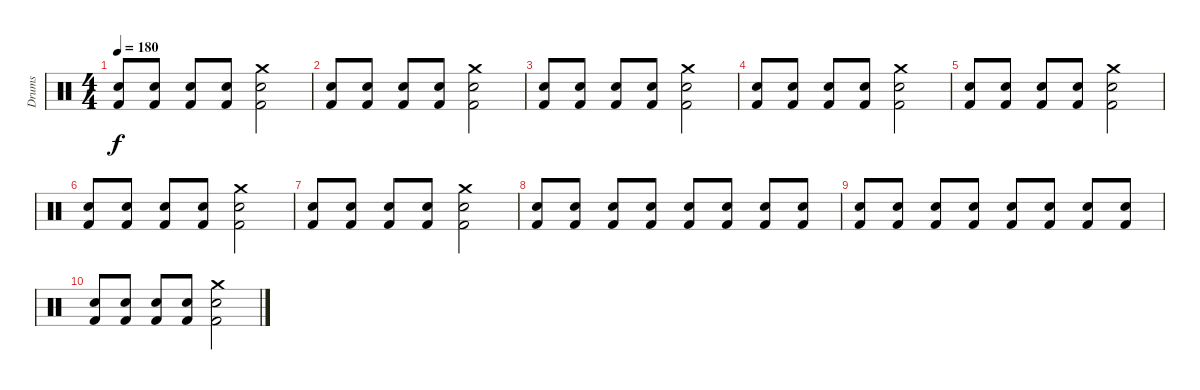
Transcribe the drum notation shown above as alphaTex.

\track ("Drums" "Drums") {instrument percussion}
\staff {score}
\articulation defaults
\ts (4 4)
\tempo 180
\clef neutral
\ks c
("Snare (hit) 2" "Kick (hit) 2").8{dy f} ("Snare (hit) 2" "Kick (hit) 2").8 ("Snare (hit) 2" "Kick (hit) 2").8 ("Snare (hit) 2" "Kick (hit) 2").8 ("Snare (hit) 2" "Crash medium (hit)" "Kick (hit) 2").2 |
("Snare (hit) 2" "Kick (hit) 2").8 ("Snare (hit) 2" "Kick (hit) 2").8 ("Snare (hit) 2" "Kick (hit) 2").8 ("Snare (hit) 2" "Kick (hit) 2").8 ("Snare (hit) 2" "Crash medium (hit)" "Kick (hit) 2").2 |
("Snare (hit) 2" "Kick (hit) 2").8 ("Snare (hit) 2" "Kick (hit) 2").8 ("Snare (hit) 2" "Kick (hit) 2").8 ("Snare (hit) 2" "Kick (hit) 2").8 ("Snare (hit) 2" "Crash medium (hit)" "Kick (hit) 2").2 |
("Snare (hit) 2" "Kick (hit) 2").8 ("Snare (hit) 2" "Kick (hit) 2").8 ("Snare (hit) 2" "Kick (hit) 2").8 ("Snare (hit) 2" "Kick (hit) 2").8 ("Snare (hit) 2" "Crash medium (hit)" "Kick (hit) 2").2 |
("Snare (hit) 2" "Kick (hit) 2").8 ("Snare (hit) 2" "Kick (hit) 2").8 ("Snare (hit) 2" "Kick (hit) 2").8 ("Snare (hit) 2" "Kick (hit) 2").8 ("Snare (hit) 2" "Crash medium (hit)" "Kick (hit) 2").2 |
("Snare (hit) 2" "Kick (hit) 2").8 ("Snare (hit) 2" "Kick (hit) 2").8 ("Snare (hit) 2" "Kick (hit) 2").8 ("Snare (hit) 2" "Kick (hit) 2").8 ("Snare (hit) 2" "Crash medium (hit)" "Kick (hit) 2").2 |
("Snare (hit) 2" "Kick (hit) 2").8 ("Snare (hit) 2" "Kick (hit) 2").8 ("Snare (hit) 2" "Kick (hit) 2").8 ("Snare (hit) 2" "Kick (hit) 2").8 ("Snare (hit) 2" "Crash medium (hit)" "Kick (hit) 2").2 |
("Snare (hit) 2" "Kick (hit) 2").8 ("Snare (hit) 2" "Kick (hit) 2").8 ("Snare (hit) 2" "Kick (hit) 2").8 ("Snare (hit) 2" "Kick (hit) 2").8 ("Snare (hit) 2" "Kick (hit) 2").8 ("Snare (hit) 2" "Kick (hit) 2").8 ("Snare (hit) 2" "Kick (hit) 2").8 ("Snare (hit) 2" "Kick (hit) 2").8 |
("Snare (hit) 2" "Kick (hit) 2").8 ("Snare (hit) 2" "Kick (hit) 2").8 ("Snare (hit) 2" "Kick (hit) 2").8 ("Snare (hit) 2" "Kick (hit) 2").8 ("Snare (hit) 2" "Kick (hit) 2").8 ("Snare (hit) 2" "Kick (hit) 2").8 ("Snare (hit) 2" "Kick (hit) 2").8 ("Snare (hit) 2" "Kick (hit) 2").8 |
("Snare (hit) 2" "Kick (hit) 2").8 ("Snare (hit) 2" "Kick (hit) 2").8 ("Snare (hit) 2" "Kick (hit) 2").8 ("Snare (hit) 2" "Kick (hit) 2").8 ("Snare (hit) 2" "Crash medium (hit)" "Kick (hit) 2").2
